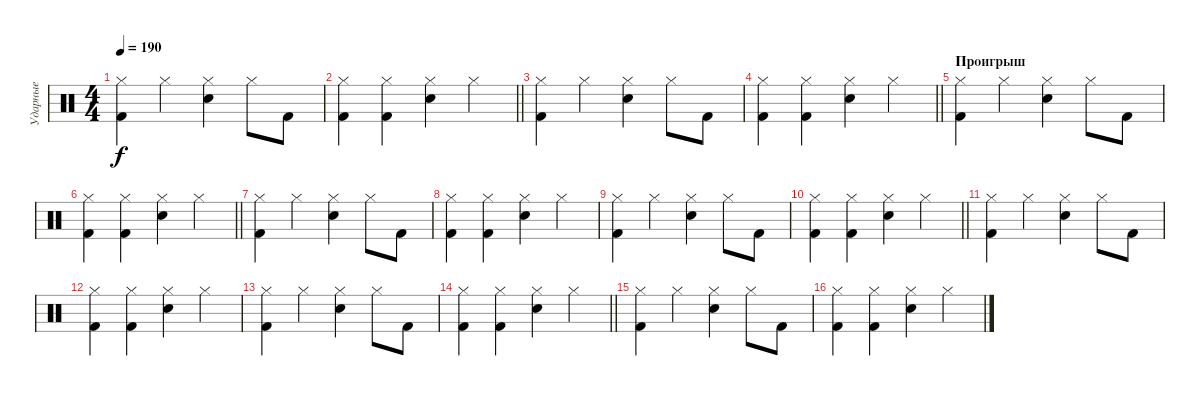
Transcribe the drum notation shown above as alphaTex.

\track ("Ударные" "Ударные") {instrument percussion}
\staff {score}
\articulation defaults
\ts (4 4)
\tempo 190
\clef neutral
\ks c
("Kick (hit) 2" "Hi-Hat (closed)").4{dy f} "Hi-Hat (closed)".4 ("Hand Clap (hit)" "Hi-Hat (closed)").4 "Hi-Hat (closed)".8 "Kick (hit) 2".8 |
\barLineRight lightlight
("Kick (hit) 2" "Hi-Hat (closed)").4 ("Kick (hit) 2" "Hi-Hat (closed)").4 ("Hand Clap (hit)" "Hi-Hat (closed)").4 "Hi-Hat (closed)".4 |
("Kick (hit) 2" "Hi-Hat (closed)").4 "Hi-Hat (closed)".4 ("Hand Clap (hit)" "Hi-Hat (closed)").4 "Hi-Hat (closed)".8 "Kick (hit) 2".8 |
\barLineRight lightlight
("Kick (hit) 2" "Hi-Hat (closed)").4 ("Kick (hit) 2" "Hi-Hat (closed)").4 ("Hand Clap (hit)" "Hi-Hat (closed)").4 "Hi-Hat (closed)".4 |
\section ("" "Проигрыш")
("Kick (hit) 2" "Hi-Hat (closed)").4 "Hi-Hat (closed)".4 ("Hand Clap (hit)" "Hi-Hat (closed)").4 "Hi-Hat (closed)".8 "Kick (hit) 2".8 |
\barLineRight lightlight
("Kick (hit) 2" "Hi-Hat (closed)").4 ("Kick (hit) 2" "Hi-Hat (closed)").4 ("Hand Clap (hit)" "Hi-Hat (closed)").4 "Hi-Hat (closed)".4 |
("Kick (hit) 2" "Hi-Hat (closed)").4 "Hi-Hat (closed)".4 ("Hand Clap (hit)" "Hi-Hat (closed)").4 "Hi-Hat (closed)".8 "Kick (hit) 2".8 |
("Kick (hit) 2" "Hi-Hat (closed)").4 ("Kick (hit) 2" "Hi-Hat (closed)").4 ("Hand Clap (hit)" "Hi-Hat (closed)").4 "Hi-Hat (closed)".4 |
("Kick (hit) 2" "Hi-Hat (closed)").4 "Hi-Hat (closed)".4 ("Hand Clap (hit)" "Hi-Hat (closed)").4 "Hi-Hat (closed)".8 "Kick (hit) 2".8 |
\barLineRight lightlight
("Kick (hit) 2" "Hi-Hat (closed)").4 ("Kick (hit) 2" "Hi-Hat (closed)").4 ("Hand Clap (hit)" "Hi-Hat (closed)").4 "Hi-Hat (closed)".4 |
("Kick (hit) 2" "Hi-Hat (closed)").4 "Hi-Hat (closed)".4 ("Hand Clap (hit)" "Hi-Hat (closed)").4 "Hi-Hat (closed)".8 "Kick (hit) 2".8 |
("Kick (hit) 2" "Hi-Hat (closed)").4 ("Kick (hit) 2" "Hi-Hat (closed)").4 ("Hand Clap (hit)" "Hi-Hat (closed)").4 "Hi-Hat (closed)".4 |
("Kick (hit) 2" "Hi-Hat (closed)").4 "Hi-Hat (closed)".4 ("Hand Clap (hit)" "Hi-Hat (closed)").4 "Hi-Hat (closed)".8 "Kick (hit) 2".8 |
\barLineRight lightlight
("Kick (hit) 2" "Hi-Hat (closed)").4 ("Kick (hit) 2" "Hi-Hat (closed)").4 ("Hand Clap (hit)" "Hi-Hat (closed)").4 "Hi-Hat (closed)".4 |
("Kick (hit) 2" "Hi-Hat (closed)").4 "Hi-Hat (closed)".4 ("Hand Clap (hit)" "Hi-Hat (closed)").4 "Hi-Hat (closed)".8 "Kick (hit) 2".8 |
("Kick (hit) 2" "Hi-Hat (closed)").4 ("Kick (hit) 2" "Hi-Hat (closed)").4 ("Hand Clap (hit)" "Hi-Hat (closed)").4 "Hi-Hat (closed)".4
